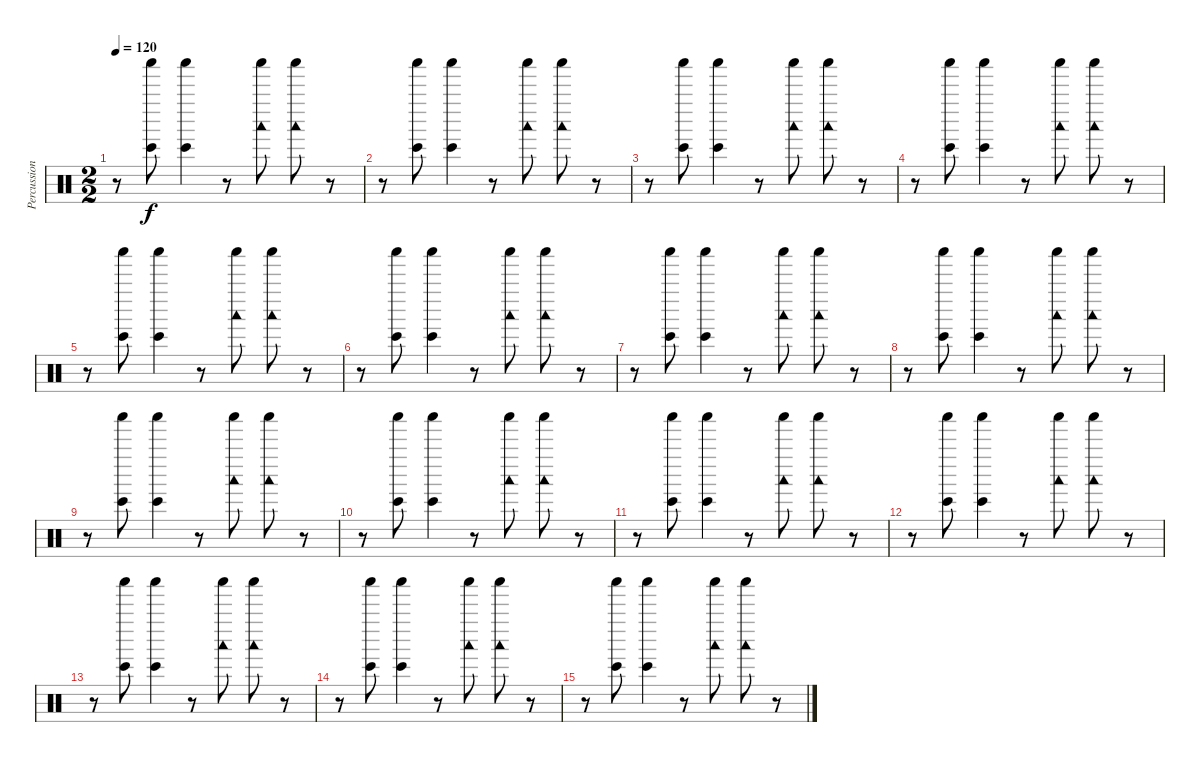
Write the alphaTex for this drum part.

\track ("Percussion" "Percussion") {instrument percussion}
\staff {score}
\articulation defaults
\ts (2 2)
\tempo 120
\clef neutral
\ks c
r.8{dy f} ("Shaker (hit)" "Bongo High (hit)").8 ("Shaker (hit)" "Bongo High (hit)").4 r.8 ("Shaker (hit)" "Woodblock low (hit)").8 ("Shaker (hit)" "Woodblock low (hit)").8 r.8 |
r.8 ("Shaker (hit)" "Bongo High (hit)").8 ("Shaker (hit)" "Bongo High (hit)").4 r.8 ("Shaker (hit)" "Woodblock low (hit)").8 ("Shaker (hit)" "Woodblock low (hit)").8 r.8 |
r.8 ("Shaker (hit)" "Bongo High (hit)").8 ("Shaker (hit)" "Bongo High (hit)").4 r.8 ("Shaker (hit)" "Woodblock low (hit)").8 ("Shaker (hit)" "Woodblock low (hit)").8 r.8 |
r.8 ("Shaker (hit)" "Bongo High (hit)").8 ("Shaker (hit)" "Bongo High (hit)").4 r.8 ("Shaker (hit)" "Woodblock low (hit)").8 ("Shaker (hit)" "Woodblock low (hit)").8 r.8 |
r.8 ("Shaker (hit)" "Bongo High (hit)").8 ("Shaker (hit)" "Bongo High (hit)").4 r.8 ("Shaker (hit)" "Woodblock low (hit)").8 ("Shaker (hit)" "Woodblock low (hit)").8 r.8 |
r.8 ("Shaker (hit)" "Bongo High (hit)").8 ("Shaker (hit)" "Bongo High (hit)").4 r.8 ("Shaker (hit)" "Woodblock low (hit)").8 ("Shaker (hit)" "Woodblock low (hit)").8 r.8 |
r.8 ("Shaker (hit)" "Bongo High (hit)").8 ("Shaker (hit)" "Bongo High (hit)").4 r.8 ("Shaker (hit)" "Woodblock low (hit)").8 ("Shaker (hit)" "Woodblock low (hit)").8 r.8 |
r.8 ("Shaker (hit)" "Bongo High (hit)").8 ("Shaker (hit)" "Bongo High (hit)").4 r.8 ("Shaker (hit)" "Woodblock low (hit)").8 ("Shaker (hit)" "Woodblock low (hit)").8 r.8 |
r.8 ("Shaker (hit)" "Bongo High (hit)").8 ("Shaker (hit)" "Bongo High (hit)").4 r.8 ("Shaker (hit)" "Woodblock low (hit)").8 ("Shaker (hit)" "Woodblock low (hit)").8 r.8 |
r.8 ("Shaker (hit)" "Bongo High (hit)").8 ("Shaker (hit)" "Bongo High (hit)").4 r.8 ("Shaker (hit)" "Woodblock low (hit)").8 ("Shaker (hit)" "Woodblock low (hit)").8 r.8 |
r.8 ("Shaker (hit)" "Bongo High (hit)").8 ("Shaker (hit)" "Bongo High (hit)").4 r.8 ("Shaker (hit)" "Woodblock low (hit)").8 ("Shaker (hit)" "Woodblock low (hit)").8 r.8 |
r.8 ("Shaker (hit)" "Bongo High (hit)").8 ("Shaker (hit)" "Bongo High (hit)").4 r.8 ("Shaker (hit)" "Woodblock low (hit)").8 ("Shaker (hit)" "Woodblock low (hit)").8 r.8 |
r.8 ("Shaker (hit)" "Bongo High (hit)").8 ("Shaker (hit)" "Bongo High (hit)").4 r.8 ("Shaker (hit)" "Woodblock low (hit)").8 ("Shaker (hit)" "Woodblock low (hit)").8 r.8 |
r.8 ("Shaker (hit)" "Bongo High (hit)").8 ("Shaker (hit)" "Bongo High (hit)").4 r.8 ("Shaker (hit)" "Woodblock low (hit)").8 ("Shaker (hit)" "Woodblock low (hit)").8 r.8 |
r.8 ("Shaker (hit)" "Bongo High (hit)").8 ("Shaker (hit)" "Bongo High (hit)").4 r.8 ("Shaker (hit)" "Woodblock low (hit)").8 ("Shaker (hit)" "Woodblock low (hit)").8 r.8
